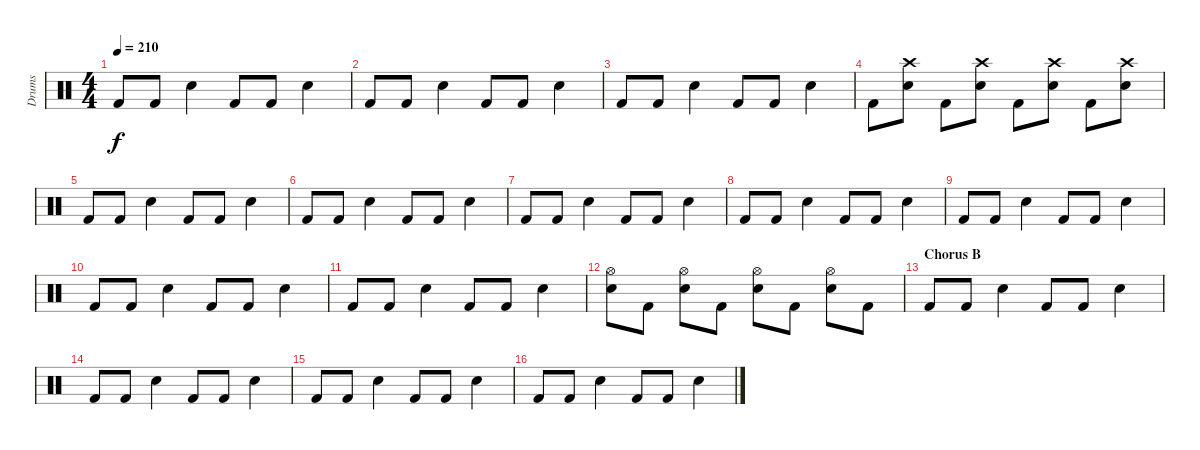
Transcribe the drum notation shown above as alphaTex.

\track ("Drums" "Drums") {instrument percussion}
\staff {score}
\articulation defaults
\ts (4 4)
\tempo 210
\clef neutral
\ks c "Kick (hit) 2".8{dy f} "Kick (hit) 2".8 "Electric Snare (hit)".4 "Kick (hit) 2".8 "Kick (hit) 2".8 "Electric Snare (hit)".4
|
"Kick (hit) 2".8 "Kick (hit) 2".8 "Electric Snare (hit)".4 "Kick (hit) 2".8 "Kick (hit) 2".8 "Electric Snare (hit)".4 |
"Kick (hit) 2".8 "Kick (hit) 2".8 "Electric Snare (hit)".4 "Kick (hit) 2".8 "Kick (hit) 2".8 "Electric Snare (hit)".4 |
"Kick (hit) 2".8 ("Crash high (hit)" "Electric Snare (hit)").8 "Kick (hit) 2".8 ("Crash high (hit)" "Electric Snare (hit)").8 "Kick (hit) 2".8 ("Crash high (hit)" "Electric Snare (hit)").8 "Kick (hit) 2".8 ("Crash high (hit)" "Electric Snare (hit)").8 |
"Kick (hit) 2".8 "Kick (hit) 2".8 "Electric Snare (hit)".4 "Kick (hit) 2".8 "Kick (hit) 2".8 "Electric Snare (hit)".4 |
"Kick (hit) 2".8 "Kick (hit) 2".8 "Electric Snare (hit)".4 "Kick (hit) 2".8 "Kick (hit) 2".8 "Electric Snare (hit)".4 |
"Kick (hit) 2".8 "Kick (hit) 2".8 "Electric Snare (hit)".4 "Kick (hit) 2".8 "Kick (hit) 2".8 "Electric Snare (hit)".4 |
"Kick (hit) 2".8 "Kick (hit) 2".8 "Electric Snare (hit)".4 "Kick (hit) 2".8 "Kick (hit) 2".8 "Electric Snare (hit)".4 |
"Kick (hit) 2".8 "Kick (hit) 2".8 "Electric Snare (hit)".4 "Kick (hit) 2".8 "Kick (hit) 2".8 "Electric Snare (hit)".4 |
"Kick (hit) 2".8 "Kick (hit) 2".8 "Electric Snare (hit)".4 "Kick (hit) 2".8 "Kick (hit) 2".8 "Electric Snare (hit)".4 |
"Kick (hit) 2".8 "Kick (hit) 2".8 "Electric Snare (hit)".4 "Kick (hit) 2".8 "Kick (hit) 2".8 "Electric Snare (hit)".4 |
("Hi-Hat (open)" "Electric Snare (hit)").8 "Kick (hit) 2".8 ("Hi-Hat (open)" "Electric Snare (hit)").8 "Kick (hit) 2".8 ("Hi-Hat (open)" "Electric Snare (hit)").8 "Kick (hit) 2".8 ("Hi-Hat (open)" "Electric Snare (hit)").8 "Kick (hit) 2".8 |
\section ("" "Chorus B")
"Kick (hit) 2".8 "Kick (hit) 2".8 "Electric Snare (hit)".4 "Kick (hit) 2".8 "Kick (hit) 2".8 "Electric Snare (hit)".4 |
"Kick (hit) 2".8 "Kick (hit) 2".8 "Electric Snare (hit)".4 "Kick (hit) 2".8 "Kick (hit) 2".8 "Electric Snare (hit)".4 |
"Kick (hit) 2".8 "Kick (hit) 2".8 "Electric Snare (hit)".4 "Kick (hit) 2".8 "Kick (hit) 2".8 "Electric Snare (hit)".4 |
"Kick (hit) 2".8 "Kick (hit) 2".8 "Electric Snare (hit)".4 "Kick (hit) 2".8 "Kick (hit) 2".8 "Electric Snare (hit)".4
